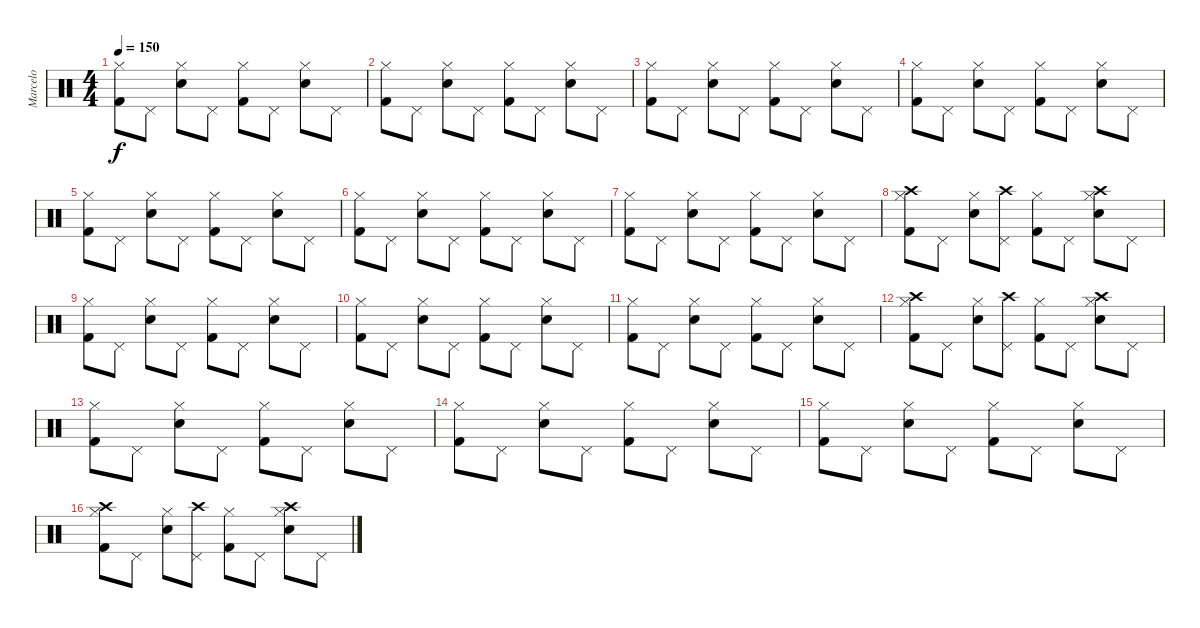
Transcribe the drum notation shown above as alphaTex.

\track ("Marcelo" "Marcelo") {instrument percussion}
\staff {score}
\articulation defaults
\ts (4 4)
\tempo 150
\clef neutral
\ks c
("Hi-Hat (closed)" "Kick (hit) 2").8{dy f} "Pedal Hi-Hat (hit)".8 ("Hi-Hat (closed)" "Electric Snare (hit)").8 "Pedal Hi-Hat (hit)".8 ("Hi-Hat (closed)" "Kick (hit) 2").8 "Pedal Hi-Hat (hit)".8 ("Hi-Hat (closed)" "Electric Snare (hit)").8 "Pedal Hi-Hat (hit)".8 |
("Hi-Hat (closed)" "Kick (hit) 2").8 "Pedal Hi-Hat (hit)".8 ("Hi-Hat (closed)" "Electric Snare (hit)").8 "Pedal Hi-Hat (hit)".8 ("Hi-Hat (closed)" "Kick (hit) 2").8 "Pedal Hi-Hat (hit)".8 ("Hi-Hat (closed)" "Electric Snare (hit)").8 "Pedal Hi-Hat (hit)".8 |
("Hi-Hat (closed)" "Kick (hit) 2").8 "Pedal Hi-Hat (hit)".8 ("Hi-Hat (closed)" "Electric Snare (hit)").8 "Pedal Hi-Hat (hit)".8 ("Hi-Hat (closed)" "Kick (hit) 2").8 "Pedal Hi-Hat (hit)".8 ("Hi-Hat (closed)" "Electric Snare (hit)").8 "Pedal Hi-Hat (hit)".8 |
("Hi-Hat (closed)" "Kick (hit) 2").8 "Pedal Hi-Hat (hit)".8 ("Hi-Hat (closed)" "Electric Snare (hit)").8 "Pedal Hi-Hat (hit)".8 ("Hi-Hat (closed)" "Kick (hit) 2").8 "Pedal Hi-Hat (hit)".8 ("Hi-Hat (closed)" "Electric Snare (hit)").8 "Pedal Hi-Hat (hit)".8 |
("Hi-Hat (closed)" "Kick (hit) 2").8 "Pedal Hi-Hat (hit)".8 ("Hi-Hat (closed)" "Electric Snare (hit)").8 "Pedal Hi-Hat (hit)".8 ("Hi-Hat (closed)" "Kick (hit) 2").8 "Pedal Hi-Hat (hit)".8 ("Hi-Hat (closed)" "Electric Snare (hit)").8 "Pedal Hi-Hat (hit)".8 |
("Hi-Hat (closed)" "Kick (hit) 2").8 "Pedal Hi-Hat (hit)".8 ("Hi-Hat (closed)" "Electric Snare (hit)").8 "Pedal Hi-Hat (hit)".8 ("Hi-Hat (closed)" "Kick (hit) 2").8 "Pedal Hi-Hat (hit)".8 ("Hi-Hat (closed)" "Electric Snare (hit)").8 "Pedal Hi-Hat (hit)".8 |
("Hi-Hat (closed)" "Kick (hit) 2").8 "Pedal Hi-Hat (hit)".8 ("Hi-Hat (closed)" "Electric Snare (hit)").8 "Pedal Hi-Hat (hit)".8 ("Hi-Hat (closed)" "Kick (hit) 2").8 "Pedal Hi-Hat (hit)".8 ("Hi-Hat (closed)" "Electric Snare (hit)").8 "Pedal Hi-Hat (hit)".8 |
("Hi-Hat (closed)" "Kick (hit) 2" "Crash high (hit)").8 "Pedal Hi-Hat (hit)".8 ("Hi-Hat (closed)" "Electric Snare (hit)").8 ("Pedal Hi-Hat (hit)" "Crash high (hit)").8 ("Hi-Hat (closed)" "Kick (hit) 2").8 "Pedal Hi-Hat (hit)".8 ("Hi-Hat (closed)" "Electric Snare (hit)" "Crash high (hit)").8 "Pedal Hi-Hat (hit)".8 |
("Hi-Hat (closed)" "Kick (hit) 2").8 "Pedal Hi-Hat (hit)".8 ("Hi-Hat (closed)" "Electric Snare (hit)").8 "Pedal Hi-Hat (hit)".8 ("Hi-Hat (closed)" "Kick (hit) 2").8 "Pedal Hi-Hat (hit)".8 ("Hi-Hat (closed)" "Electric Snare (hit)").8 "Pedal Hi-Hat (hit)".8 |
("Hi-Hat (closed)" "Kick (hit) 2").8 "Pedal Hi-Hat (hit)".8 ("Hi-Hat (closed)" "Electric Snare (hit)").8 "Pedal Hi-Hat (hit)".8 ("Hi-Hat (closed)" "Kick (hit) 2").8 "Pedal Hi-Hat (hit)".8 ("Hi-Hat (closed)" "Electric Snare (hit)").8 "Pedal Hi-Hat (hit)".8 |
("Hi-Hat (closed)" "Kick (hit) 2").8 "Pedal Hi-Hat (hit)".8 ("Hi-Hat (closed)" "Electric Snare (hit)").8 "Pedal Hi-Hat (hit)".8 ("Hi-Hat (closed)" "Kick (hit) 2").8 "Pedal Hi-Hat (hit)".8 ("Hi-Hat (closed)" "Electric Snare (hit)").8 "Pedal Hi-Hat (hit)".8 |
("Hi-Hat (closed)" "Kick (hit) 2" "Crash high (hit)").8 "Pedal Hi-Hat (hit)".8 ("Hi-Hat (closed)" "Electric Snare (hit)").8 ("Pedal Hi-Hat (hit)" "Crash high (hit)").8 ("Hi-Hat (closed)" "Kick (hit) 2").8 "Pedal Hi-Hat (hit)".8 ("Hi-Hat (closed)" "Electric Snare (hit)" "Crash high (hit)").8 "Pedal Hi-Hat (hit)".8 |
("Hi-Hat (closed)" "Kick (hit) 2").8 "Pedal Hi-Hat (hit)".8 ("Hi-Hat (closed)" "Electric Snare (hit)").8 "Pedal Hi-Hat (hit)".8 ("Hi-Hat (closed)" "Kick (hit) 2").8 "Pedal Hi-Hat (hit)".8 ("Hi-Hat (closed)" "Electric Snare (hit)").8 "Pedal Hi-Hat (hit)".8 |
("Hi-Hat (closed)" "Kick (hit) 2").8 "Pedal Hi-Hat (hit)".8 ("Hi-Hat (closed)" "Electric Snare (hit)").8 "Pedal Hi-Hat (hit)".8 ("Hi-Hat (closed)" "Kick (hit) 2").8 "Pedal Hi-Hat (hit)".8 ("Hi-Hat (closed)" "Electric Snare (hit)").8 "Pedal Hi-Hat (hit)".8 |
("Hi-Hat (closed)" "Kick (hit) 2").8 "Pedal Hi-Hat (hit)".8 ("Hi-Hat (closed)" "Electric Snare (hit)").8 "Pedal Hi-Hat (hit)".8 ("Hi-Hat (closed)" "Kick (hit) 2").8 "Pedal Hi-Hat (hit)".8 ("Hi-Hat (closed)" "Electric Snare (hit)").8 "Pedal Hi-Hat (hit)".8 |
("Hi-Hat (closed)" "Kick (hit) 2" "Crash high (hit)").8 "Pedal Hi-Hat (hit)".8 ("Hi-Hat (closed)" "Electric Snare (hit)").8 ("Pedal Hi-Hat (hit)" "Crash high (hit)").8 ("Hi-Hat (closed)" "Kick (hit) 2").8 "Pedal Hi-Hat (hit)".8 ("Hi-Hat (closed)" "Electric Snare (hit)" "Crash high (hit)").8 "Pedal Hi-Hat (hit)".8
